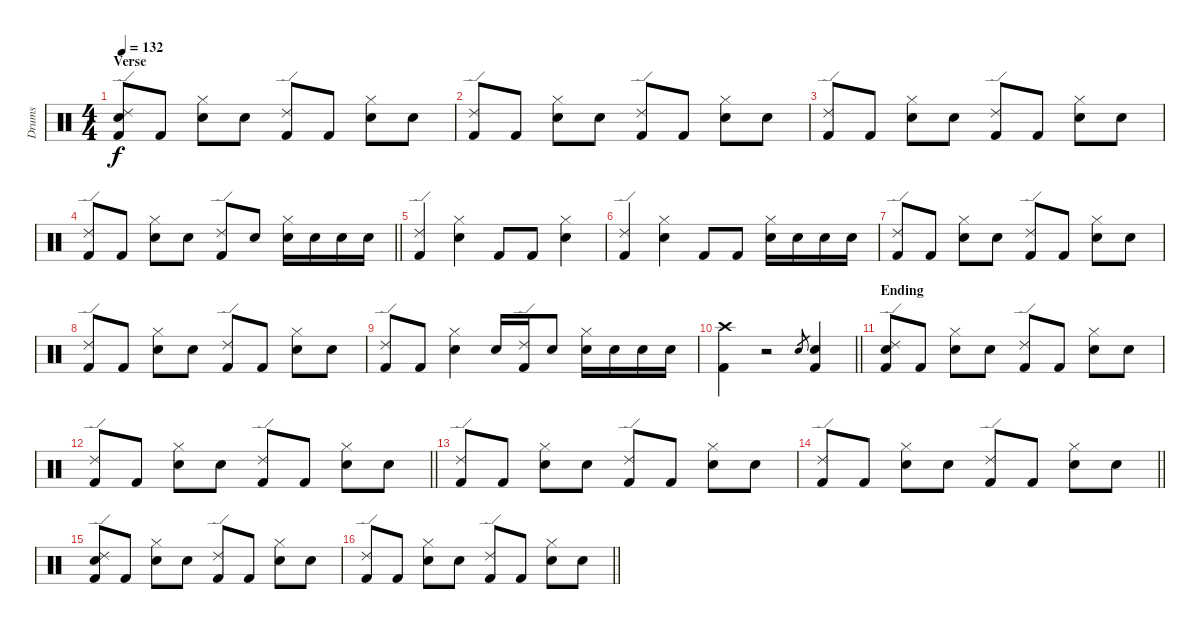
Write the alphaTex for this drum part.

\track ("Drums" "Drums") {instrument percussion}
\staff {score}
\articulation defaults
\ts (4 4)
\section ("" "Verse")
\tempo 132
\clef neutral
\ks c
("Ride (edge) 2" "Snare (hit) 2" "Kick (hit) 2").8{dy f volume 9} "Kick (hit) 2".8 ("Hi-Hat (closed)" "Snare (hit) 2").8 "Snare (hit) 2".8 ("Ride (edge) 2" "Kick (hit) 2").8 "Kick (hit) 2".8 ("Hi-Hat (closed)" "Snare (hit) 2").8 "Snare (hit) 2".8 |
("Ride (edge) 2" "Kick (hit) 2").8 "Kick (hit) 2".8 ("Hi-Hat (closed)" "Snare (hit) 2").8 "Snare (hit) 2".8 ("Ride (edge) 2" "Kick (hit) 2").8 "Kick (hit) 2".8 ("Hi-Hat (closed)" "Snare (hit) 2").8 "Snare (hit) 2".8 |
("Ride (edge) 2" "Kick (hit) 2").8 "Kick (hit) 2".8 ("Hi-Hat (closed)" "Snare (hit) 2").8 "Snare (hit) 2".8 ("Ride (edge) 2" "Kick (hit) 2").8 "Kick (hit) 2".8 ("Hi-Hat (closed)" "Snare (hit) 2").8 "Snare (hit) 2".8 |
\barLineRight lightlight
("Ride (edge) 2" "Kick (hit) 2").8 "Kick (hit) 2".8 ("Hi-Hat (closed)" "Snare (hit) 2").8 "Snare (hit) 2".8 ("Ride (edge) 2" "Kick (hit) 2").8 "Snare (hit) 2".8 ("Hi-Hat (closed)" "Snare (hit) 2").16 "Snare (hit) 2".16 "Snare (hit) 2".16 "Snare (hit) 2".16 |
("Ride (edge) 2" "Kick (hit) 2").4 ("Hi-Hat (closed)" "Snare (hit) 2").4 "Kick (hit) 2".8 "Kick (hit) 2".8 ("Hi-Hat (closed)" "Snare (hit) 2").4 |
("Ride (edge) 2" "Kick (hit) 2").4 ("Hi-Hat (closed)" "Snare (hit) 2").4 "Kick (hit) 2".8 "Kick (hit) 2".8 ("Hi-Hat (closed)" "Snare (hit) 2").16 "Snare (hit) 2".16 "Snare (hit) 2".16 "Snare (hit) 2".16 |
("Ride (edge) 2" "Kick (hit) 2").8 "Kick (hit) 2".8 ("Hi-Hat (closed)" "Snare (hit) 2").8 "Snare (hit) 2".8 ("Ride (edge) 2" "Kick (hit) 2").8 "Kick (hit) 2".8 ("Hi-Hat (closed)" "Snare (hit) 2").8 "Snare (hit) 2".8 |
("Ride (edge) 2" "Kick (hit) 2").8 "Kick (hit) 2".8 ("Hi-Hat (closed)" "Snare (hit) 2").8 "Snare (hit) 2".8 ("Ride (edge) 2" "Kick (hit) 2").8 "Kick (hit) 2".8 ("Hi-Hat (closed)" "Snare (hit) 2").8 "Snare (hit) 2".8 |
("Ride (edge) 2" "Kick (hit) 2").8 "Kick (hit) 2".8 ("Hi-Hat (closed)" "Snare (hit) 2").4 "Snare (hit) 2".16 ("Ride (edge) 2" "Kick (hit) 2").16 "Snare (hit) 2".8 ("Hi-Hat (closed)" "Snare (hit) 2").16 "Snare (hit) 2".16 "Snare (hit) 2".16 "Snare (hit) 2".16 |
\barLineRight lightlight
("Crash high (hit)" "Kick (hit) 2").4{volume 9} r.2 "Snare (hit) 2".8{gr} ("Snare (hit) 2" "Kick (hit) 2").4 |
\section ("" "Ending")
("Ride (edge) 2" "Snare (hit) 2" "Kick (hit) 2").8{volume 9} "Kick (hit) 2".8 ("Hi-Hat (closed)" "Snare (hit) 2").8 "Snare (hit) 2".8 ("Ride (edge) 2" "Kick (hit) 2").8 "Kick (hit) 2".8 ("Hi-Hat (closed)" "Snare (hit) 2").8 "Snare (hit) 2".8 |
\barLineRight lightlight
("Ride (edge) 2" "Kick (hit) 2").8 "Kick (hit) 2".8 ("Hi-Hat (closed)" "Snare (hit) 2").8 "Snare (hit) 2".8 ("Ride (edge) 2" "Kick (hit) 2").8 "Kick (hit) 2".8 ("Hi-Hat (closed)" "Snare (hit) 2").8 "Snare (hit) 2".8 |
("Ride (edge) 2" "Kick (hit) 2").8 "Kick (hit) 2".8 ("Hi-Hat (closed)" "Snare (hit) 2").8 "Snare (hit) 2".8 ("Ride (edge) 2" "Kick (hit) 2").8 "Kick (hit) 2".8 ("Hi-Hat (closed)" "Snare (hit) 2").8 "Snare (hit) 2".8 |
\barLineRight lightlight
("Ride (edge) 2" "Kick (hit) 2").8 "Kick (hit) 2".8 ("Hi-Hat (closed)" "Snare (hit) 2").8 "Snare (hit) 2".8 ("Ride (edge) 2" "Kick (hit) 2").8 "Kick (hit) 2".8 ("Hi-Hat (closed)" "Snare (hit) 2").8 "Snare (hit) 2".8 |
("Ride (edge) 2" "Snare (hit) 2" "Kick (hit) 2").8{volume 9} "Kick (hit) 2".8 ("Hi-Hat (closed)" "Snare (hit) 2").8 "Snare (hit) 2".8 ("Ride (edge) 2" "Kick (hit) 2").8 "Kick (hit) 2".8 ("Hi-Hat (closed)" "Snare (hit) 2").8 "Snare (hit) 2".8 |
\barLineRight lightlight
("Ride (edge) 2" "Kick (hit) 2").8 "Kick (hit) 2".8 ("Hi-Hat (closed)" "Snare (hit) 2").8 "Snare (hit) 2".8 ("Ride (edge) 2" "Kick (hit) 2").8 "Kick (hit) 2".8 ("Hi-Hat (closed)" "Snare (hit) 2").8 "Snare (hit) 2".8
